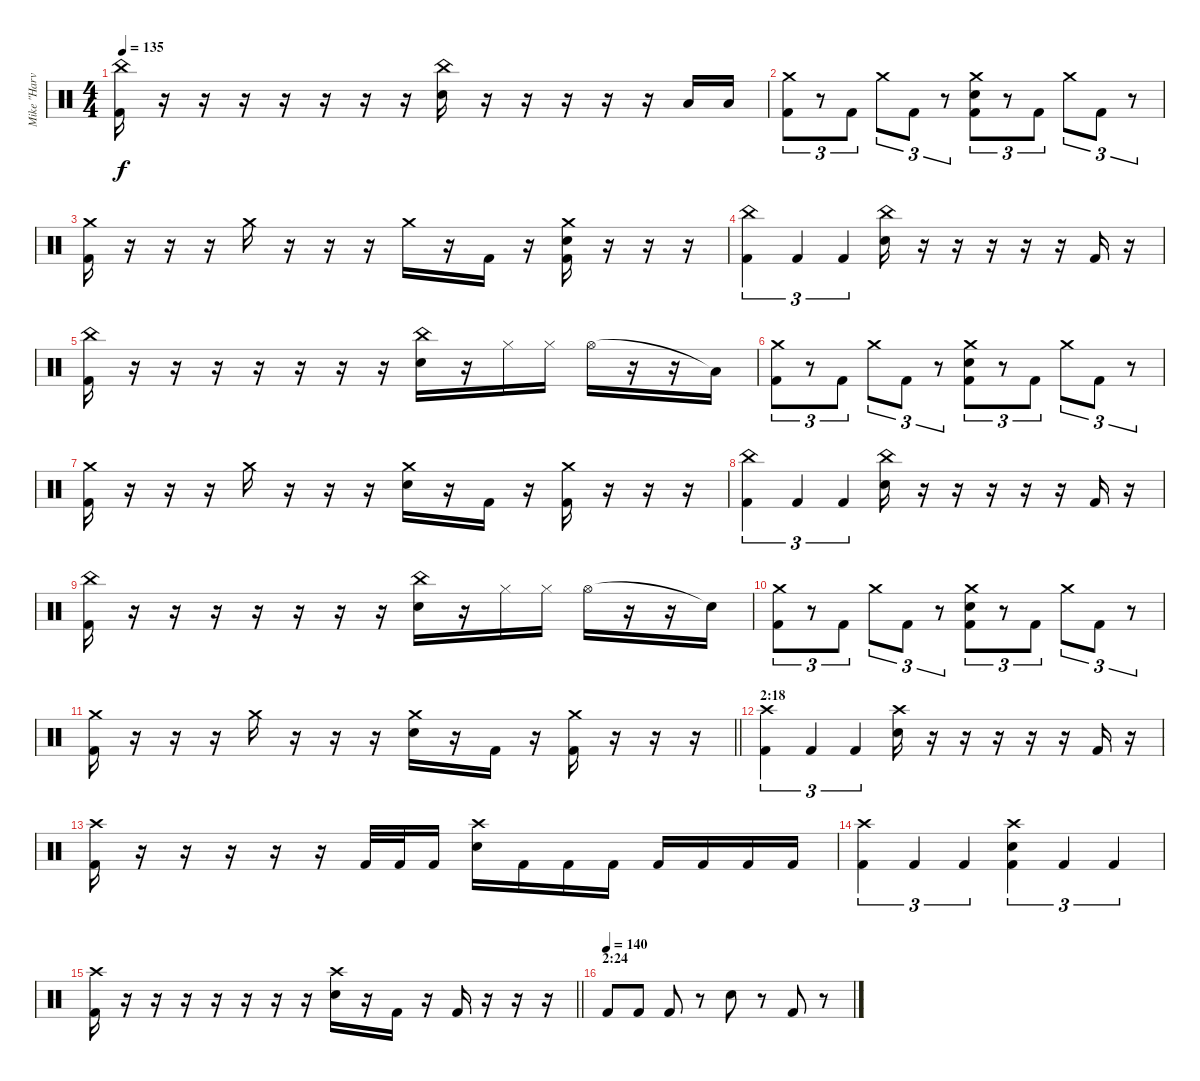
\track ("Mike \"Harvey\" Kaabe" "Mike \"Harv") {instrument percussion}
\staff {score}
\articulation defaults
\ts (4 4)
\tempo 135
\clef neutral
\ks c
("China (hit)" "Kick (hit) 2").16{dy f} r.16 r.16 r.16 r.16 r.16 r.16 r.16 ("China (hit)" "Electric Snare (hit)").16 r.16 r.16 r.16 r.16 r.16 "Low Tom (hit)".16 "Low Tom (hit)".16 |
("Crash medium (hit)" "Kick (hit) 2").8{tu (3 2)} r.8{tu (3 2)} "Kick (hit) 2".8{tu (3 2)} "Crash medium (hit)".8{tu (3 2)} "Kick (hit) 2".8{tu (3 2)} r.8{tu (3 2)} ("Crash medium (hit)" "Electric Snare (hit)" "Kick (hit) 2").8{tu (3 2)} r.8{tu (3 2)} "Kick (hit) 2".8{tu (3 2)} "Crash medium (hit)".8{tu (3 2)} "Kick (hit) 2".8{tu (3 2)} r.8{tu (3 2)} |
("Crash medium (hit)" "Kick (hit) 2").16 r.16 r.16 r.16 "Crash medium (hit)".16 r.16 r.16 r.16 "Crash medium (hit)".16 r.16 "Kick (hit) 2".16 r.16 ("Crash medium (hit)" "Electric Snare (hit)" "Kick (hit) 2").16 r.16 r.16 r.16 |
("China (hit)" "Kick (hit) 2").4{tu (3 2)} "Kick (hit) 2".4{tu (3 2)} "Kick (hit) 2".4{tu (3 2)} ("China (hit)" "Electric Snare (hit)").16 r.16 r.16 r.16 r.16 r.16 "Kick (hit) 2".16 r.16 |
("China (hit)" "Kick (hit) 2").16 r.16 r.16 r.16 r.16 r.16 r.16 r.16 ("China (hit)" "Electric Snare (hit)").16 r.16 "Hi-Hat (closed)".16 "Hi-Hat (closed)".16 "Hi-Hat (open)".16 r.16 r.16 "Low Tom (hit)"{t}.16 |
("Crash medium (hit)" "Kick (hit) 2").8{tu (3 2)} r.8{tu (3 2)} "Kick (hit) 2".8{tu (3 2)} "Crash medium (hit)".8{tu (3 2)} "Kick (hit) 2".8{tu (3 2)} r.8{tu (3 2)} ("Crash medium (hit)" "Electric Snare (hit)" "Kick (hit) 2").8{tu (3 2)} r.8{tu (3 2)} "Kick (hit) 2".8{tu (3 2)} "Crash medium (hit)".8{tu (3 2)} "Kick (hit) 2".8{tu (3 2)} r.8{tu (3 2)} |
("Crash medium (hit)" "Kick (hit) 2").16 r.16 r.16 r.16 "Crash medium (hit)".16 r.16 r.16 r.16 ("Crash medium (hit)" "Electric Snare (hit)").16 r.16 "Kick (hit) 2".16 r.16 ("Crash medium (hit)" "Kick (hit) 2").16 r.16 r.16 r.16 |
("China (hit)" "Kick (hit) 2").4{tu (3 2)} "Kick (hit) 2".4{tu (3 2)} "Kick (hit) 2".4{tu (3 2)} ("China (hit)" "Electric Snare (hit)").16 r.16 r.16 r.16 r.16 r.16 "Kick (hit) 2".16 r.16 |
("China (hit)" "Kick (hit) 2").16 r.16 r.16 r.16 r.16 r.16 r.16 r.16 ("China (hit)" "Electric Snare (hit)").16 r.16 "Hi-Hat (closed)".16 "Hi-Hat (closed)".16 "Hi-Hat (open)".16 r.16 r.16 "Snare (hit)"{t}.16 |
("Crash medium (hit)" "Kick (hit) 2").8{tu (3 2)} r.8{tu (3 2)} "Kick (hit) 2".8{tu (3 2)} "Crash medium (hit)".8{tu (3 2)} "Kick (hit) 2".8{tu (3 2)} r.8{tu (3 2)} ("Crash medium (hit)" "Electric Snare (hit)" "Kick (hit) 2").8{tu (3 2)} r.8{tu (3 2)} "Kick (hit) 2".8{tu (3 2)} "Crash medium (hit)".8{tu (3 2)} "Kick (hit) 2".8{tu (3 2)} r.8{tu (3 2)} |
\barLineRight lightlight
("Crash medium (hit)" "Kick (hit) 2").16 r.16 r.16 r.16 "Crash medium (hit)".16 r.16 r.16 r.16 ("Crash medium (hit)" "Electric Snare (hit)").16 r.16 "Kick (hit) 2".16 r.16 ("Crash medium (hit)" "Kick (hit) 2").16 r.16 r.16 r.16 |
\section ("" "2:18")
("Crash high (hit)" "Kick (hit) 2").4{tu (3 2)} "Kick (hit) 2".4{tu (3 2)} "Kick (hit) 2".4{tu (3 2)} ("Crash high (hit)" "Electric Snare (hit)").16 r.16 r.16 r.16 r.16 r.16 "Kick (hit) 2".16 r.16 |
("Crash high (hit)" "Kick (hit) 2").16 r.16 r.16 r.16 r.16 r.16 "Kick (hit) 2".32 "Kick (hit) 2".32 "Kick (hit) 2".16 ("Crash high (hit)" "Electric Snare (hit)").16 "Kick (hit) 2".16 "Kick (hit) 2".16 "Kick (hit) 2".16 "Kick (hit) 2".16 "Kick (hit) 2".16 "Kick (hit) 2".16 "Kick (hit) 2".16 |
("Crash high (hit)" "Kick (hit) 2").4{tu (3 2)} "Kick (hit) 2".4{tu (3 2)} "Kick (hit) 2".4{tu (3 2)} ("Crash high (hit)" "Electric Snare (hit)" "Kick (hit) 2").4{tu (3 2)} "Kick (hit) 2".4{tu (3 2)} "Kick (hit) 2".4{tu (3 2)} |
\barLineRight lightlight
("Crash high (hit)" "Kick (hit) 2").16 r.16 r.16 r.16 r.16 r.16 r.16 r.16 ("Crash high (hit)" "Electric Snare (hit)").16 r.16 "Kick (hit) 2".16 r.16 "Kick (hit) 2".16 r.16 r.16 r.16 |
\section ("" "2:24")
\tempo (140)
"Kick (hit) 2".8 "Kick (hit) 2".8 "Kick (hit) 2".8 r.8 "Snare (hit) 2".8 r.8 "Kick (hit) 2".8 r.8
